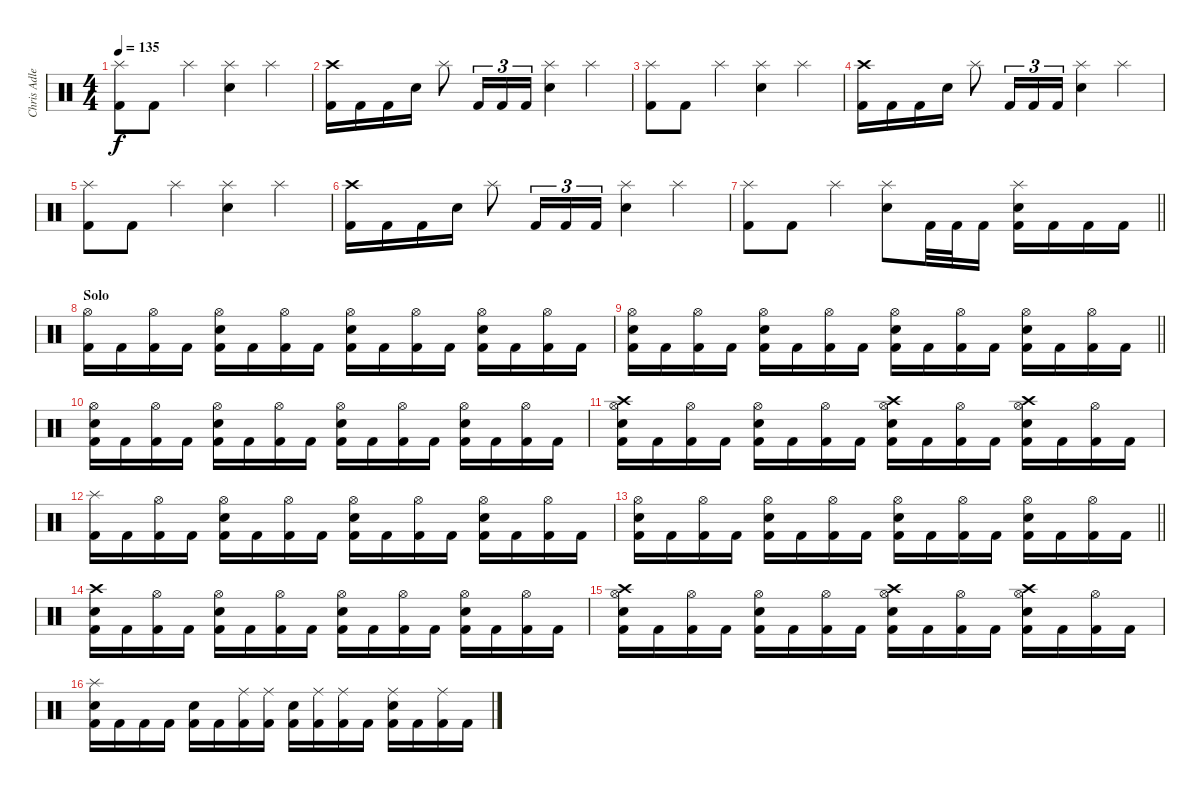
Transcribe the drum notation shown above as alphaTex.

\track ("Chris Adler" "Chris Adle") {instrument percussion}
\staff {score}
\articulation defaults
\ts (4 4)
\tempo 135
\clef neutral
\ks c
("Splash (hit)" "Kick (hit) 2").8{dy f} "Kick (hit) 2".8 "Splash (hit)".4 ("Splash (hit)" "Electric Snare (hit)").4 "Splash (hit)".4 |
("Crash high (hit)" "Kick (hit) 2").16 "Kick (hit) 2".16 "Kick (hit) 2".16 "Electric Snare (hit)".16 "Splash (hit)".8 "Kick (hit) 2".16{tu (3 2)} "Kick (hit) 2".16{tu (3 2)} "Kick (hit) 2".16{tu (3 2)} ("Splash (hit)" "Electric Snare (hit)").4 "Splash (hit)".4 |
("Splash (hit)" "Kick (hit) 2").8 "Kick (hit) 2".8 "Splash (hit)".4 ("Splash (hit)" "Electric Snare (hit)").4 "Splash (hit)".4 |
("Crash high (hit)" "Kick (hit) 2").16 "Kick (hit) 2".16 "Kick (hit) 2".16 "Electric Snare (hit)".16 "Splash (hit)".8 "Kick (hit) 2".16{tu (3 2)} "Kick (hit) 2".16{tu (3 2)} "Kick (hit) 2".16{tu (3 2)} ("Splash (hit)" "Electric Snare (hit)").4 "Splash (hit)".4 |
("Splash (hit)" "Kick (hit) 2").8 "Kick (hit) 2".8 "Splash (hit)".4 ("Splash (hit)" "Electric Snare (hit)").4 "Splash (hit)".4 |
("Crash high (hit)" "Kick (hit) 2").16 "Kick (hit) 2".16 "Kick (hit) 2".16 "Electric Snare (hit)".16 "Splash (hit)".8 "Kick (hit) 2".16{tu (3 2)} "Kick (hit) 2".16{tu (3 2)} "Kick (hit) 2".16{tu (3 2)} ("Splash (hit)" "Electric Snare (hit)").4 "Splash (hit)".4 |
\barLineRight lightlight
("Splash (hit)" "Kick (hit) 2").8 "Kick (hit) 2".8 "Splash (hit)".4 ("Splash (hit)" "Electric Snare (hit)").8 "Kick (hit) 2".32 "Kick (hit) 2".32 "Kick (hit) 2".16 ("Splash (hit)" "Electric Snare (hit)" "Kick (hit) 2").16 "Kick (hit) 2".16 "Kick (hit) 2".16 "Kick (hit) 2".16 |
\section ("" "Solo")
("Hi-Hat (open)" "Kick (hit) 2").16 "Kick (hit) 2".16 ("Hi-Hat (open)" "Kick (hit) 2").16 "Kick (hit) 2".16 ("Hi-Hat (open)" "Electric Snare (hit)" "Kick (hit) 2").16 "Kick (hit) 2".16 ("Hi-Hat (open)" "Kick (hit) 2").16 "Kick (hit) 2".16 ("Hi-Hat (open)" "Electric Snare (hit)" "Kick (hit) 2").16 "Kick (hit) 2".16 ("Hi-Hat (open)" "Kick (hit) 2").16 "Kick (hit) 2".16 ("Hi-Hat (open)" "Electric Snare (hit)" "Kick (hit) 2").16 "Kick (hit) 2".16 ("Hi-Hat (open)" "Kick (hit) 2").16 "Kick (hit) 2".16 |
\barLineRight lightlight
("Hi-Hat (open)" "Electric Snare (hit)" "Kick (hit) 2").16 "Kick (hit) 2".16 ("Hi-Hat (open)" "Kick (hit) 2").16 "Kick (hit) 2".16 ("Hi-Hat (open)" "Electric Snare (hit)" "Kick (hit) 2").16 "Kick (hit) 2".16 ("Hi-Hat (open)" "Kick (hit) 2").16 "Kick (hit) 2".16 ("Hi-Hat (open)" "Electric Snare (hit)" "Kick (hit) 2").16 "Kick (hit) 2".16 ("Hi-Hat (open)" "Kick (hit) 2").16 "Kick (hit) 2".16 ("Hi-Hat (open)" "Electric Snare (hit)" "Kick (hit) 2").16 "Kick (hit) 2".16 ("Hi-Hat (open)" "Kick (hit) 2").16 "Kick (hit) 2".16 |
("Hi-Hat (open)" "Electric Snare (hit)" "Kick (hit) 2").16 "Kick (hit) 2".16 ("Hi-Hat (open)" "Kick (hit) 2").16 "Kick (hit) 2".16 ("Hi-Hat (open)" "Electric Snare (hit)" "Kick (hit) 2").16 "Kick (hit) 2".16 ("Hi-Hat (open)" "Kick (hit) 2").16 "Kick (hit) 2".16 ("Hi-Hat (open)" "Electric Snare (hit)" "Kick (hit) 2").16 "Kick (hit) 2".16 ("Hi-Hat (open)" "Kick (hit) 2").16 "Kick (hit) 2".16 ("Hi-Hat (open)" "Electric Snare (hit)" "Kick (hit) 2").16 "Kick (hit) 2".16 ("Hi-Hat (open)" "Kick (hit) 2").16 "Kick (hit) 2".16 |
("Crash high (hit)" "Hi-Hat (open)" "Electric Snare (hit)" "Kick (hit) 2").16 "Kick (hit) 2".16 ("Hi-Hat (open)" "Kick (hit) 2").16 "Kick (hit) 2".16 ("Hi-Hat (open)" "Electric Snare (hit)" "Kick (hit) 2").16 "Kick (hit) 2".16 ("Hi-Hat (open)" "Kick (hit) 2").16 "Kick (hit) 2".16 ("Crash high (hit)" "Hi-Hat (open)" "Electric Snare (hit)" "Kick (hit) 2").16 "Kick (hit) 2".16 ("Hi-Hat (open)" "Kick (hit) 2").16 "Kick (hit) 2".16 ("Crash high (hit)" "Hi-Hat (open)" "Electric Snare (hit)" "Kick (hit) 2").16 "Kick (hit) 2".16 ("Hi-Hat (open)" "Kick (hit) 2").16 "Kick (hit) 2".16 |
("Splash (hit)" "Kick (hit) 2").16 "Kick (hit) 2".16 ("Hi-Hat (open)" "Kick (hit) 2").16 "Kick (hit) 2".16 ("Hi-Hat (open)" "Electric Snare (hit)" "Kick (hit) 2").16 "Kick (hit) 2".16 ("Hi-Hat (open)" "Kick (hit) 2").16 "Kick (hit) 2".16 ("Hi-Hat (open)" "Electric Snare (hit)" "Kick (hit) 2").16 "Kick (hit) 2".16 ("Hi-Hat (open)" "Kick (hit) 2").16 "Kick (hit) 2".16 ("Hi-Hat (open)" "Electric Snare (hit)" "Kick (hit) 2").16 "Kick (hit) 2".16 ("Hi-Hat (open)" "Kick (hit) 2").16 "Kick (hit) 2".16 |
\barLineRight lightlight
("Hi-Hat (open)" "Electric Snare (hit)" "Kick (hit) 2").16 "Kick (hit) 2".16 ("Hi-Hat (open)" "Kick (hit) 2").16 "Kick (hit) 2".16 ("Hi-Hat (open)" "Electric Snare (hit)" "Kick (hit) 2").16 "Kick (hit) 2".16 ("Hi-Hat (open)" "Kick (hit) 2").16 "Kick (hit) 2".16 ("Hi-Hat (open)" "Electric Snare (hit)" "Kick (hit) 2").16 "Kick (hit) 2".16 ("Hi-Hat (open)" "Kick (hit) 2").16 "Kick (hit) 2".16 ("Hi-Hat (open)" "Electric Snare (hit)" "Kick (hit) 2").16 "Kick (hit) 2".16 ("Hi-Hat (open)" "Kick (hit) 2").16 "Kick (hit) 2".16 |
("Crash high (hit)" "Electric Snare (hit)" "Kick (hit) 2").16 "Kick (hit) 2".16 ("Hi-Hat (open)" "Kick (hit) 2").16 "Kick (hit) 2".16 ("Hi-Hat (open)" "Electric Snare (hit)" "Kick (hit) 2").16 "Kick (hit) 2".16 ("Hi-Hat (open)" "Kick (hit) 2").16 "Kick (hit) 2".16 ("Hi-Hat (open)" "Electric Snare (hit)" "Kick (hit) 2").16 "Kick (hit) 2".16 ("Hi-Hat (open)" "Kick (hit) 2").16 "Kick (hit) 2".16 ("Hi-Hat (open)" "Electric Snare (hit)" "Kick (hit) 2").16 "Kick (hit) 2".16 ("Hi-Hat (open)" "Kick (hit) 2").16 "Kick (hit) 2".16 |
("Crash high (hit)" "Hi-Hat (open)" "Electric Snare (hit)" "Kick (hit) 2").16 "Kick (hit) 2".16 ("Hi-Hat (open)" "Kick (hit) 2").16 "Kick (hit) 2".16 ("Hi-Hat (open)" "Electric Snare (hit)" "Kick (hit) 2").16 "Kick (hit) 2".16 ("Hi-Hat (open)" "Kick (hit) 2").16 "Kick (hit) 2".16 ("Crash high (hit)" "Hi-Hat (open)" "Electric Snare (hit)" "Kick (hit) 2").16 "Kick (hit) 2".16 ("Hi-Hat (open)" "Kick (hit) 2").16 "Kick (hit) 2".16 ("Crash high (hit)" "Hi-Hat (open)" "Electric Snare (hit)" "Kick (hit) 2").16 "Kick (hit) 2".16 ("Hi-Hat (open)" "Kick (hit) 2").16 "Kick (hit) 2".16 |
("Splash (hit)" "Electric Snare (hit)" "Kick (hit) 2").16 "Kick (hit) 2".16 "Kick (hit) 2".16 "Kick (hit) 2".16 ("Electric Snare (hit)" "Kick (hit) 2").16 "Kick (hit) 2".16 ("Ride (middle)" "Kick (hit) 2").16 ("Ride (middle)" "Kick (hit) 2").16 ("Electric Snare (hit)" "Kick (hit) 2").16 ("Ride (middle)" "Kick (hit) 2").16 ("Ride (middle)" "Kick (hit) 2").16 "Kick (hit) 2".16 ("Ride (middle)" "Electric Snare (hit)" "Kick (hit) 2").16 "Kick (hit) 2".16 ("Ride (middle)" "Kick (hit) 2").16 "Kick (hit) 2".16
